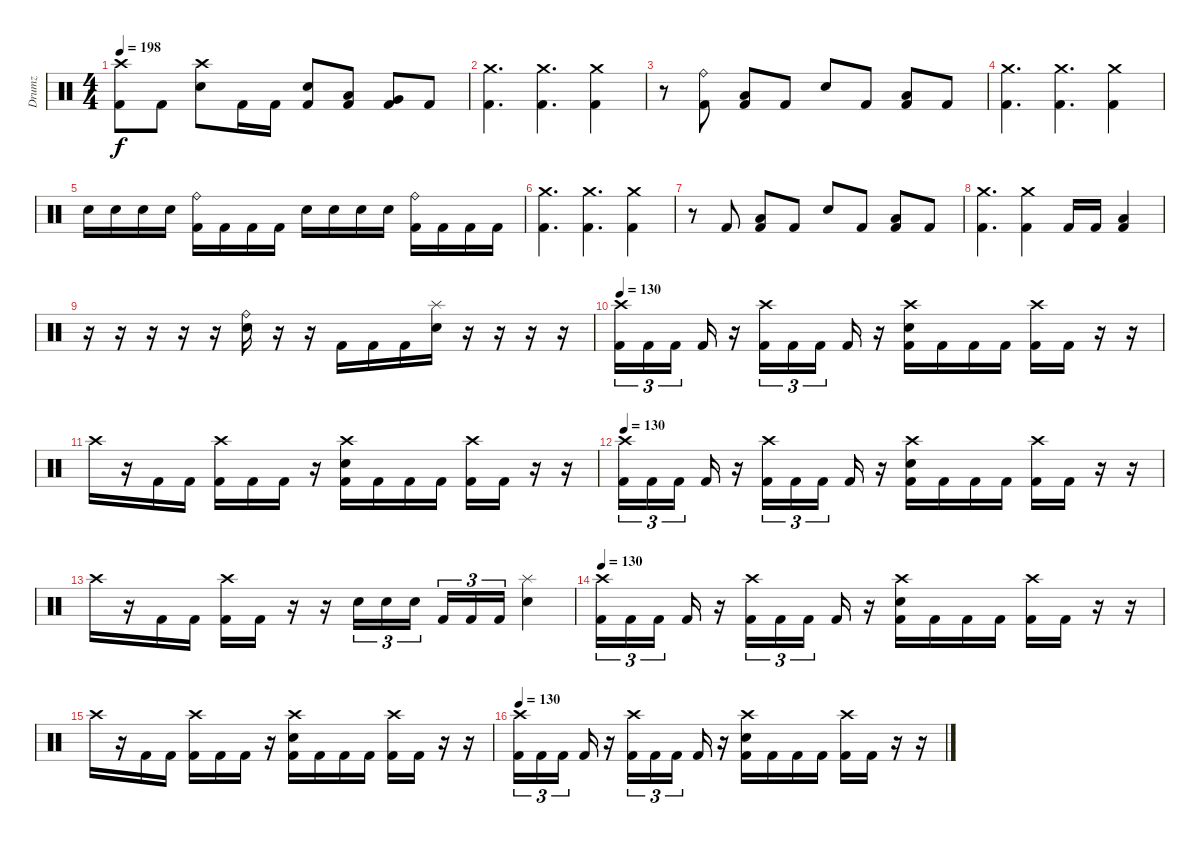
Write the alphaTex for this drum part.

\track ("Drumz" "Drumz") {instrument percussion}
\staff {score}
\articulation defaults
\ts (4 4)
\tempo 198
\clef neutral
\ks c
("Crash high (hit)" "Kick (hit) 2").8{dy f} "Kick (hit) 2".8 ("Crash high (hit)" "Electric Snare (hit)").8 "Kick (hit) 2".16 "Kick (hit) 2".16 ("Electric Snare (hit)" "Kick (hit) 2").8 ("Low Tom (hit)" "Kick (hit) 2").8 ("Very Low Tom (hit)" "Kick (hit) 2").8 "Kick (hit) 2".8 |
("Crash medium (hit)" "Kick (hit) 2").4{d} ("Crash medium (hit)" "Kick (hit) 2").4{d} ("Crash medium (hit)" "Kick (hit) 2").4 |
r.8 ("Ride (bell)" "Kick (hit) 2").8 ("Low Tom (hit)" "Kick (hit) 2").8 "Kick (hit) 2".8 "Electric Snare (hit)".8 "Kick (hit) 2".8 ("Low Tom (hit)" "Kick (hit) 2").8 "Kick (hit) 2".8 |
("Crash medium (hit)" "Kick (hit) 2").4{d} ("Crash medium (hit)" "Kick (hit) 2").4{d} ("Crash medium (hit)" "Kick (hit) 2").4 |
"Electric Snare (hit)".16 "Electric Snare (hit)".16 "Electric Snare (hit)".16 "Electric Snare (hit)".16 ("Ride (bell)" "Kick (hit) 2").16 "Kick (hit) 2".16 "Kick (hit) 2".16 "Kick (hit) 2".16 "Electric Snare (hit)".16 "Electric Snare (hit)".16 "Electric Snare (hit)".16 "Electric Snare (hit)".16 ("Ride (bell)" "Kick (hit) 2").16 "Kick (hit) 2".16 "Kick (hit) 2".16 "Kick (hit) 2".16 |
("Crash medium (hit)" "Kick (hit) 2").4{d} ("Crash medium (hit)" "Kick (hit) 2").4{d} ("Crash medium (hit)" "Kick (hit) 2").4 |
r.8 "Kick (hit) 2".8 ("Low Tom (hit)" "Kick (hit) 2").8 "Kick (hit) 2".8 "Electric Snare (hit)".8 "Kick (hit) 2".8 ("Low Tom (hit)" "Kick (hit) 2").8 "Kick (hit) 2".8 |
("Crash medium (hit)" "Kick (hit) 2").4{d} ("Crash medium (hit)" "Kick (hit) 2").4 "Kick (hit) 2".16 "Kick (hit) 2".16 ("Low Tom (hit)" "Kick (hit) 2").4 |
r.16 r.16 r.16 r.16 r.16 ("Ride (bell)" "Electric Snare (hit)").16 r.16 r.16 "Kick (hit) 2".16 "Kick (hit) 2".16 "Kick (hit) 2".16 ("Splash (hit)" "Electric Snare (hit)").16 r.16 r.16 r.16 r.16 |
\tempo 130
("Crash high (hit)" "Kick (hit) 2").16{tu (3 2)} "Kick (hit) 2".16{tu (3 2)} "Kick (hit) 2".16{tu (3 2) beam splitsecondary} "Kick (hit) 2".16 r.16 ("Crash high (hit)" "Kick (hit) 2").16{tu (3 2)} "Kick (hit) 2".16{tu (3 2)} "Kick (hit) 2".16{tu (3 2) beam splitsecondary} "Kick (hit) 2".16 r.16 ("Crash high (hit)" "Electric Snare (hit)" "Kick (hit) 2").16 "Kick (hit) 2".16 "Kick (hit) 2".16 "Kick (hit) 2".16 ("Crash high (hit)" "Kick (hit) 2").16 "Kick (hit) 2".16 r.16 r.16 |
"Crash high (hit)".16 r.16 "Kick (hit) 2".16 "Kick (hit) 2".16 ("Crash high (hit)" "Kick (hit) 2").16 "Kick (hit) 2".16 "Kick (hit) 2".16 r.16 ("Crash high (hit)" "Electric Snare (hit)" "Kick (hit) 2").16 "Kick (hit) 2".16 "Kick (hit) 2".16 "Kick (hit) 2".16 ("Crash high (hit)" "Kick (hit) 2").16 "Kick (hit) 2".16 r.16 r.16 |
\tempo 130
("Crash high (hit)" "Kick (hit) 2").16{tu (3 2)} "Kick (hit) 2".16{tu (3 2)} "Kick (hit) 2".16{tu (3 2) beam splitsecondary} "Kick (hit) 2".16 r.16 ("Crash high (hit)" "Kick (hit) 2").16{tu (3 2)} "Kick (hit) 2".16{tu (3 2)} "Kick (hit) 2".16{tu (3 2) beam splitsecondary} "Kick (hit) 2".16 r.16 ("Crash high (hit)" "Electric Snare (hit)" "Kick (hit) 2").16 "Kick (hit) 2".16 "Kick (hit) 2".16 "Kick (hit) 2".16 ("Crash high (hit)" "Kick (hit) 2").16 "Kick (hit) 2".16 r.16 r.16 |
"Crash high (hit)".16 r.16 "Kick (hit) 2".16 "Kick (hit) 2".16 ("Crash high (hit)" "Kick (hit) 2").16 "Kick (hit) 2".16 r.16 r.16 "Electric Snare (hit)".16{tu (3 2)} "Electric Snare (hit)".16{tu (3 2)} "Electric Snare (hit)".16{tu (3 2) beam splitsecondary} "Kick (hit) 2".16{tu (3 2)} "Kick (hit) 2".16{tu (3 2)} "Kick (hit) 2".16{tu (3 2)} ("Splash (hit)" "Electric Snare (hit)").4 |
\tempo 130
("Crash high (hit)" "Kick (hit) 2").16{tu (3 2)} "Kick (hit) 2".16{tu (3 2)} "Kick (hit) 2".16{tu (3 2) beam splitsecondary} "Kick (hit) 2".16 r.16 ("Crash high (hit)" "Kick (hit) 2").16{tu (3 2)} "Kick (hit) 2".16{tu (3 2)} "Kick (hit) 2".16{tu (3 2) beam splitsecondary} "Kick (hit) 2".16 r.16 ("Crash high (hit)" "Electric Snare (hit)" "Kick (hit) 2").16 "Kick (hit) 2".16 "Kick (hit) 2".16 "Kick (hit) 2".16 ("Crash high (hit)" "Kick (hit) 2").16 "Kick (hit) 2".16 r.16 r.16 |
"Crash high (hit)".16 r.16 "Kick (hit) 2".16 "Kick (hit) 2".16 ("Crash high (hit)" "Kick (hit) 2").16 "Kick (hit) 2".16 "Kick (hit) 2".16 r.16 ("Crash high (hit)" "Electric Snare (hit)" "Kick (hit) 2").16 "Kick (hit) 2".16 "Kick (hit) 2".16 "Kick (hit) 2".16 ("Crash high (hit)" "Kick (hit) 2").16 "Kick (hit) 2".16 r.16 r.16 |
\tempo 130
("Crash high (hit)" "Kick (hit) 2").16{tu (3 2)} "Kick (hit) 2".16{tu (3 2)} "Kick (hit) 2".16{tu (3 2) beam splitsecondary} "Kick (hit) 2".16 r.16 ("Crash high (hit)" "Kick (hit) 2").16{tu (3 2)} "Kick (hit) 2".16{tu (3 2)} "Kick (hit) 2".16{tu (3 2) beam splitsecondary} "Kick (hit) 2".16 r.16 ("Crash high (hit)" "Electric Snare (hit)" "Kick (hit) 2").16 "Kick (hit) 2".16 "Kick (hit) 2".16 "Kick (hit) 2".16 ("Crash high (hit)" "Kick (hit) 2").16 "Kick (hit) 2".16 r.16 r.16
